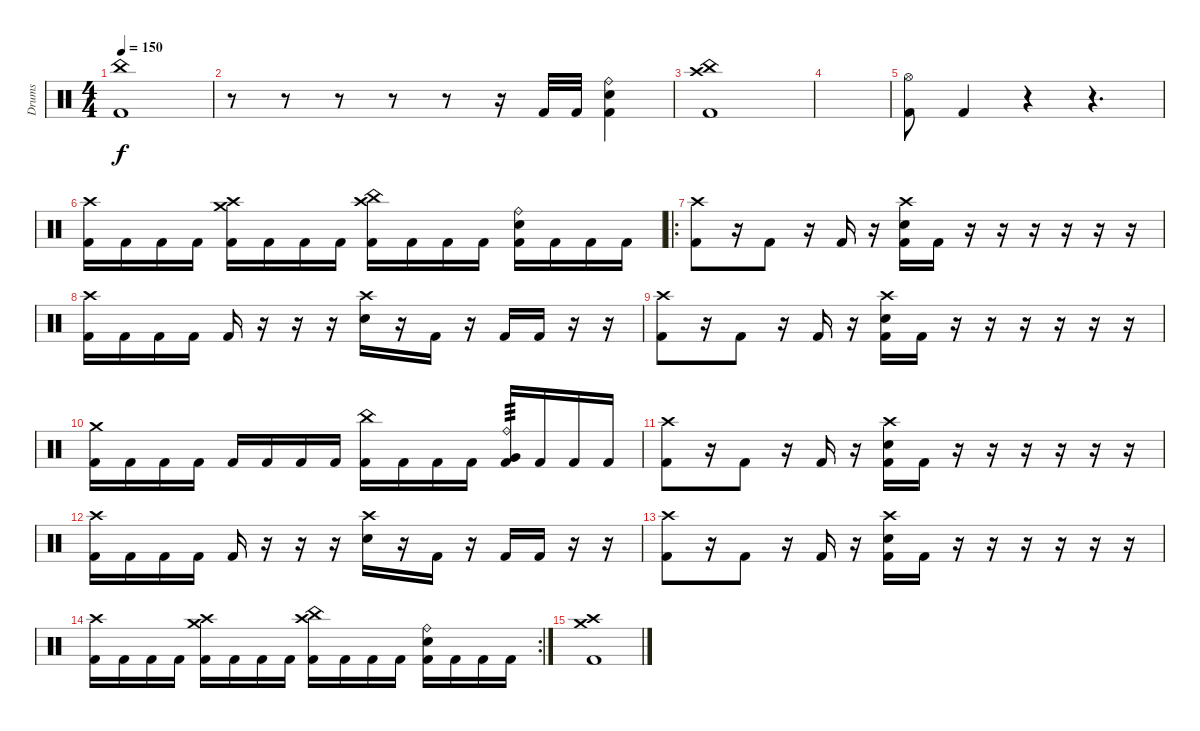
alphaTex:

\track ("Drums" "Drums") {instrument percussion}
\staff {score}
\articulation defaults
\ts (4 4)
\tempo 150
\clef neutral
\ks c
("Kick (hit) 2" "China (hit)").1{dy f} |
r.8 r.8 r.8 r.8 r.8 r.16 "Kick (hit) 2".32 "Kick (hit) 2".32 ("Electric Snare (hit)" "Kick (hit) 2" "Ride (bell)").4 |
("Kick (hit) 2" "China (hit)" "Crash high (hit)").1 |
|
("Kick (hit) 2" "Hi-Hat (open)").8 "Kick (hit) 2".4 r.4 r.4{d} |
("Kick (hit) 2" "Crash high (hit)").16 "Kick (hit) 2".16 "Kick (hit) 2".16 "Kick (hit) 2".16 ("Kick (hit) 2" "Crash medium (hit)" "Crash high (hit)").16 "Kick (hit) 2".16 "Kick (hit) 2".16 "Kick (hit) 2".16 ("Kick (hit) 2" "China (hit)" "Crash high (hit)").16 "Kick (hit) 2".16 "Kick (hit) 2".16 "Kick (hit) 2".16 ("Electric Snare (hit)" "Kick (hit) 2" "Ride (bell)").16 "Kick (hit) 2".16 "Kick (hit) 2".16 "Kick (hit) 2".16 |
\ro
("Kick (hit) 2" "Crash high (hit)").8 r.16 "Kick (hit) 2".8 r.16 "Kick (hit) 2".16 r.16 ("Electric Snare (hit)" "Kick (hit) 2" "Crash high (hit)").16 "Kick (hit) 2".16 r.16 r.16 r.16 r.16 r.16 r.16 |
("Kick (hit) 2" "Crash high (hit)").16 "Kick (hit) 2".16 "Kick (hit) 2".16 "Kick (hit) 2".16 "Kick (hit) 2".16 r.16 r.16 r.16 ("Electric Snare (hit)" "Crash high (hit)").16 r.16 "Kick (hit) 2".16 r.16 "Kick (hit) 2".16 "Kick (hit) 2".16 r.16 r.16 |
("Kick (hit) 2" "Crash high (hit)").8 r.16 "Kick (hit) 2".8 r.16 "Kick (hit) 2".16 r.16 ("Electric Snare (hit)" "Kick (hit) 2" "Crash high (hit)").16 "Kick (hit) 2".16 r.16 r.16 r.16 r.16 r.16 r.16 |
("Kick (hit) 2" "Crash medium (hit)").16 "Kick (hit) 2".16 "Kick (hit) 2".16 "Kick (hit) 2".16 "Kick (hit) 2".16 "Kick (hit) 2".16 "Kick (hit) 2".16 "Kick (hit) 2".16 ("Kick (hit) 2" "China (hit)").16 "Kick (hit) 2".16 "Kick (hit) 2".16 "Kick (hit) 2".16 ("Very Low Tom (hit)" "Kick (hit) 2" "Ride (bell)").16{tp 3} "Kick (hit) 2".16 "Kick (hit) 2".16 "Kick (hit) 2".16 |
("Kick (hit) 2" "Crash high (hit)").8 r.16 "Kick (hit) 2".8 r.16 "Kick (hit) 2".16 r.16 ("Electric Snare (hit)" "Kick (hit) 2" "Crash high (hit)").16 "Kick (hit) 2".16 r.16 r.16 r.16 r.16 r.16 r.16 |
("Kick (hit) 2" "Crash high (hit)").16 "Kick (hit) 2".16 "Kick (hit) 2".16 "Kick (hit) 2".16 "Kick (hit) 2".16 r.16 r.16 r.16 ("Electric Snare (hit)" "Crash high (hit)").16 r.16 "Kick (hit) 2".16 r.16 "Kick (hit) 2".16 "Kick (hit) 2".16 r.16 r.16 |
("Kick (hit) 2" "Crash high (hit)").8 r.16 "Kick (hit) 2".8 r.16 "Kick (hit) 2".16 r.16 ("Electric Snare (hit)" "Kick (hit) 2" "Crash high (hit)").16 "Kick (hit) 2".16 r.16 r.16 r.16 r.16 r.16 r.16 |
\rc 2
("Kick (hit) 2" "Crash high (hit)").16 "Kick (hit) 2".16 "Kick (hit) 2".16 "Kick (hit) 2".16 ("Kick (hit) 2" "Crash medium (hit)" "Crash high (hit)").16 "Kick (hit) 2".16 "Kick (hit) 2".16 "Kick (hit) 2".16 ("Kick (hit) 2" "China (hit)" "Crash high (hit)").16 "Kick (hit) 2".16 "Kick (hit) 2".16 "Kick (hit) 2".16 ("Electric Snare (hit)" "Kick (hit) 2" "Ride (bell)").16 "Kick (hit) 2".16 "Kick (hit) 2".16 "Kick (hit) 2".16 |
("Kick (hit) 2" "Crash high (hit)" "Crash medium (hit)").1
